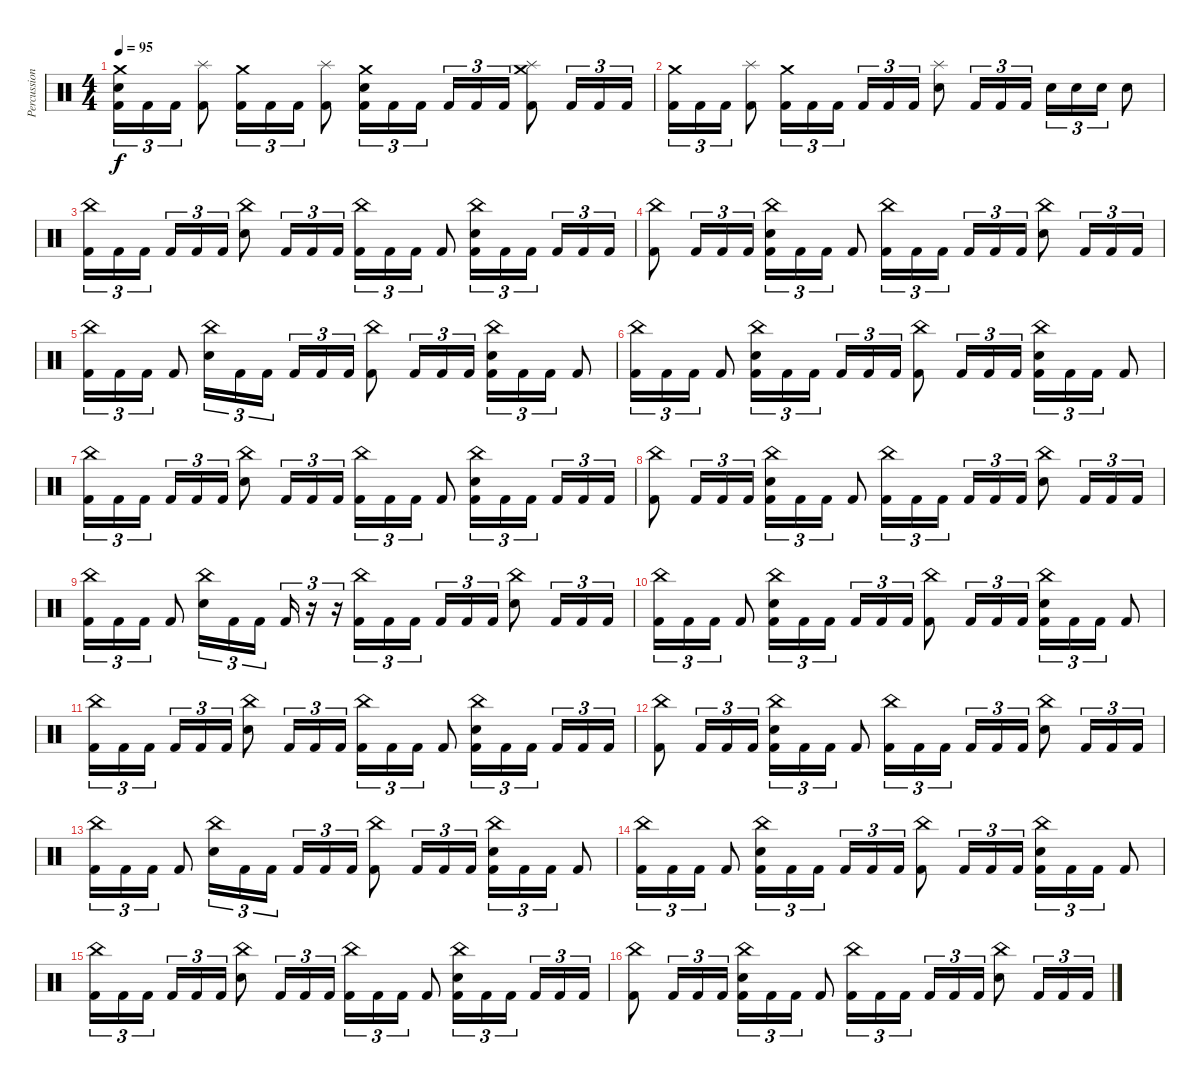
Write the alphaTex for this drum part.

\track ("Percussion" "Percussion") {instrument percussion}
\staff {score}
\articulation defaults
\ts (4 4)
\tempo 95
\clef neutral
\ks c
("Crash medium (hit)" "Electric Snare (hit)" "Kick (hit) 2").16{tu (3 2) dy f} "Kick (hit) 2".16{tu (3 2)} "Kick (hit) 2".16{tu (3 2)} ("Splash (hit)" "Kick (hit) 2").8 ("Crash medium (hit)" "Kick (hit) 2").16{tu (3 2)} "Kick (hit) 2".16{tu (3 2)} "Kick (hit) 2".16{tu (3 2)} ("Splash (hit)" "Kick (hit) 2").8 ("Crash medium (hit)" "Electric Snare (hit)" "Kick (hit) 2").16{tu (3 2)} "Kick (hit) 2".16{tu (3 2)} "Kick (hit) 2".16{tu (3 2) beam splitsecondary} "Kick (hit) 2".16{tu (3 2)} "Kick (hit) 2".16{tu (3 2)} "Kick (hit) 2".16{tu (3 2)} ("Crash medium (hit)" "Splash (hit)" "Kick (hit) 2").8 "Kick (hit) 2".16{tu (3 2)} "Kick (hit) 2".16{tu (3 2)} "Kick (hit) 2".16{tu (3 2)} |
("Crash medium (hit)" "Kick (hit) 2").16{tu (3 2)} "Kick (hit) 2".16{tu (3 2)} "Kick (hit) 2".16{tu (3 2)} ("Splash (hit)" "Kick (hit) 2").8 ("Crash medium (hit)" "Kick (hit) 2").16{tu (3 2)} "Kick (hit) 2".16{tu (3 2)} "Kick (hit) 2".16{tu (3 2) beam splitsecondary} "Kick (hit) 2".16{tu (3 2)} "Kick (hit) 2".16{tu (3 2)} "Kick (hit) 2".16{tu (3 2)} ("Splash (hit)" "Electric Snare (hit)").8 "Kick (hit) 2".16{tu (3 2)} "Kick (hit) 2".16{tu (3 2)} "Kick (hit) 2".16{tu (3 2)} "Electric Snare (hit)".16{tu (3 2)} "Electric Snare (hit)".16{tu (3 2)} "Electric Snare (hit)".16{tu (3 2)} "Electric Snare (hit)".8 |
("China (hit)" "Kick (hit) 2").16{tu (3 2)} "Kick (hit) 2".16{tu (3 2)} "Kick (hit) 2".16{tu (3 2) beam splitsecondary} "Kick (hit) 2".16{tu (3 2)} "Kick (hit) 2".16{tu (3 2)} "Kick (hit) 2".16{tu (3 2)} ("China (hit)" "Electric Snare (hit)").8 "Kick (hit) 2".16{tu (3 2)} "Kick (hit) 2".16{tu (3 2)} "Kick (hit) 2".16{tu (3 2)} ("China (hit)" "Kick (hit) 2").16{tu (3 2)} "Kick (hit) 2".16{tu (3 2)} "Kick (hit) 2".16{tu (3 2)} "Kick (hit) 2".8 ("China (hit)" "Electric Snare (hit)" "Kick (hit) 2").16{tu (3 2)} "Kick (hit) 2".16{tu (3 2)} "Kick (hit) 2".16{tu (3 2) beam splitsecondary} "Kick (hit) 2".16{tu (3 2)} "Kick (hit) 2".16{tu (3 2)} "Kick (hit) 2".16{tu (3 2)} |
("China (hit)" "Kick (hit) 2").8 "Kick (hit) 2".16{tu (3 2)} "Kick (hit) 2".16{tu (3 2)} "Kick (hit) 2".16{tu (3 2)} ("China (hit)" "Electric Snare (hit)" "Kick (hit) 2").16{tu (3 2)} "Kick (hit) 2".16{tu (3 2)} "Kick (hit) 2".16{tu (3 2)} "Kick (hit) 2".8 ("China (hit)" "Kick (hit) 2").16{tu (3 2)} "Kick (hit) 2".16{tu (3 2)} "Kick (hit) 2".16{tu (3 2) beam splitsecondary} "Kick (hit) 2".16{tu (3 2)} "Kick (hit) 2".16{tu (3 2)} "Kick (hit) 2".16{tu (3 2)} ("China (hit)" "Electric Snare (hit)").8 "Kick (hit) 2".16{tu (3 2)} "Kick (hit) 2".16{tu (3 2)} "Kick (hit) 2".16{tu (3 2)} |
("China (hit)" "Kick (hit) 2").16{tu (3 2)} "Kick (hit) 2".16{tu (3 2)} "Kick (hit) 2".16{tu (3 2)} "Kick (hit) 2".8 ("China (hit)" "Electric Snare (hit)").16{tu (3 2)} "Kick (hit) 2".16{tu (3 2)} "Kick (hit) 2".16{tu (3 2) beam splitsecondary} "Kick (hit) 2".16{tu (3 2)} "Kick (hit) 2".16{tu (3 2)} "Kick (hit) 2".16{tu (3 2)} ("China (hit)" "Kick (hit) 2").8 "Kick (hit) 2".16{tu (3 2)} "Kick (hit) 2".16{tu (3 2)} "Kick (hit) 2".16{tu (3 2)} ("China (hit)" "Electric Snare (hit)" "Kick (hit) 2").16{tu (3 2)} "Kick (hit) 2".16{tu (3 2)} "Kick (hit) 2".16{tu (3 2)} "Kick (hit) 2".8 |
("China (hit)" "Kick (hit) 2").16{tu (3 2)} "Kick (hit) 2".16{tu (3 2)} "Kick (hit) 2".16{tu (3 2)} "Kick (hit) 2".8 ("China (hit)" "Electric Snare (hit)" "Kick (hit) 2").16{tu (3 2)} "Kick (hit) 2".16{tu (3 2)} "Kick (hit) 2".16{tu (3 2) beam splitsecondary} "Kick (hit) 2".16{tu (3 2)} "Kick (hit) 2".16{tu (3 2)} "Kick (hit) 2".16{tu (3 2)} ("China (hit)" "Kick (hit) 2").8 "Kick (hit) 2".16{tu (3 2)} "Kick (hit) 2".16{tu (3 2)} "Kick (hit) 2".16{tu (3 2)} ("China (hit)" "Electric Snare (hit)" "Kick (hit) 2").16{tu (3 2)} "Kick (hit) 2".16{tu (3 2)} "Kick (hit) 2".16{tu (3 2)} "Kick (hit) 2".8 |
("China (hit)" "Kick (hit) 2").16{tu (3 2)} "Kick (hit) 2".16{tu (3 2)} "Kick (hit) 2".16{tu (3 2) beam splitsecondary} "Kick (hit) 2".16{tu (3 2)} "Kick (hit) 2".16{tu (3 2)} "Kick (hit) 2".16{tu (3 2)} ("China (hit)" "Electric Snare (hit)").8 "Kick (hit) 2".16{tu (3 2)} "Kick (hit) 2".16{tu (3 2)} "Kick (hit) 2".16{tu (3 2)} ("China (hit)" "Kick (hit) 2").16{tu (3 2)} "Kick (hit) 2".16{tu (3 2)} "Kick (hit) 2".16{tu (3 2)} "Kick (hit) 2".8 ("China (hit)" "Electric Snare (hit)" "Kick (hit) 2").16{tu (3 2)} "Kick (hit) 2".16{tu (3 2)} "Kick (hit) 2".16{tu (3 2) beam splitsecondary} "Kick (hit) 2".16{tu (3 2)} "Kick (hit) 2".16{tu (3 2)} "Kick (hit) 2".16{tu (3 2)} |
("China (hit)" "Kick (hit) 2").8 "Kick (hit) 2".16{tu (3 2)} "Kick (hit) 2".16{tu (3 2)} "Kick (hit) 2".16{tu (3 2)} ("China (hit)" "Electric Snare (hit)" "Kick (hit) 2").16{tu (3 2)} "Kick (hit) 2".16{tu (3 2)} "Kick (hit) 2".16{tu (3 2)} "Kick (hit) 2".8 ("China (hit)" "Kick (hit) 2").16{tu (3 2)} "Kick (hit) 2".16{tu (3 2)} "Kick (hit) 2".16{tu (3 2) beam splitsecondary} "Kick (hit) 2".16{tu (3 2)} "Kick (hit) 2".16{tu (3 2)} "Kick (hit) 2".16{tu (3 2)} ("China (hit)" "Electric Snare (hit)").8 "Kick (hit) 2".16{tu (3 2)} "Kick (hit) 2".16{tu (3 2)} "Kick (hit) 2".16{tu (3 2)} |
("China (hit)" "Kick (hit) 2").16{tu (3 2)} "Kick (hit) 2".16{tu (3 2)} "Kick (hit) 2".16{tu (3 2)} "Kick (hit) 2".8 ("China (hit)" "Electric Snare (hit)").16{tu (3 2)} "Kick (hit) 2".16{tu (3 2)} "Kick (hit) 2".16{tu (3 2) beam splitsecondary} "Kick (hit) 2".16{tu (3 2)} r.16{tu (3 2)} r.16{tu (3 2)} ("China (hit)" "Kick (hit) 2").16{tu (3 2)} "Kick (hit) 2".16{tu (3 2)} "Kick (hit) 2".16{tu (3 2) beam splitsecondary} "Kick (hit) 2".16{tu (3 2)} "Kick (hit) 2".16{tu (3 2)} "Kick (hit) 2".16{tu (3 2)} ("China (hit)" "Electric Snare (hit)").8 "Kick (hit) 2".16{tu (3 2)} "Kick (hit) 2".16{tu (3 2)} "Kick (hit) 2".16{tu (3 2)} |
("China (hit)" "Kick (hit) 2").16{tu (3 2)} "Kick (hit) 2".16{tu (3 2)} "Kick (hit) 2".16{tu (3 2)} "Kick (hit) 2".8 ("China (hit)" "Electric Snare (hit)" "Kick (hit) 2").16{tu (3 2)} "Kick (hit) 2".16{tu (3 2)} "Kick (hit) 2".16{tu (3 2) beam splitsecondary} "Kick (hit) 2".16{tu (3 2)} "Kick (hit) 2".16{tu (3 2)} "Kick (hit) 2".16{tu (3 2)} ("China (hit)" "Kick (hit) 2").8 "Kick (hit) 2".16{tu (3 2)} "Kick (hit) 2".16{tu (3 2)} "Kick (hit) 2".16{tu (3 2)} ("China (hit)" "Electric Snare (hit)" "Kick (hit) 2").16{tu (3 2)} "Kick (hit) 2".16{tu (3 2)} "Kick (hit) 2".16{tu (3 2)} "Kick (hit) 2".8 |
("China (hit)" "Kick (hit) 2").16{tu (3 2)} "Kick (hit) 2".16{tu (3 2)} "Kick (hit) 2".16{tu (3 2) beam splitsecondary} "Kick (hit) 2".16{tu (3 2)} "Kick (hit) 2".16{tu (3 2)} "Kick (hit) 2".16{tu (3 2)} ("China (hit)" "Electric Snare (hit)").8 "Kick (hit) 2".16{tu (3 2)} "Kick (hit) 2".16{tu (3 2)} "Kick (hit) 2".16{tu (3 2)} ("China (hit)" "Kick (hit) 2").16{tu (3 2)} "Kick (hit) 2".16{tu (3 2)} "Kick (hit) 2".16{tu (3 2)} "Kick (hit) 2".8 ("China (hit)" "Electric Snare (hit)" "Kick (hit) 2").16{tu (3 2)} "Kick (hit) 2".16{tu (3 2)} "Kick (hit) 2".16{tu (3 2) beam splitsecondary} "Kick (hit) 2".16{tu (3 2)} "Kick (hit) 2".16{tu (3 2)} "Kick (hit) 2".16{tu (3 2)} |
("China (hit)" "Kick (hit) 2").8 "Kick (hit) 2".16{tu (3 2)} "Kick (hit) 2".16{tu (3 2)} "Kick (hit) 2".16{tu (3 2)} ("China (hit)" "Electric Snare (hit)" "Kick (hit) 2").16{tu (3 2)} "Kick (hit) 2".16{tu (3 2)} "Kick (hit) 2".16{tu (3 2)} "Kick (hit) 2".8 ("China (hit)" "Kick (hit) 2").16{tu (3 2)} "Kick (hit) 2".16{tu (3 2)} "Kick (hit) 2".16{tu (3 2) beam splitsecondary} "Kick (hit) 2".16{tu (3 2)} "Kick (hit) 2".16{tu (3 2)} "Kick (hit) 2".16{tu (3 2)} ("China (hit)" "Electric Snare (hit)").8 "Kick (hit) 2".16{tu (3 2)} "Kick (hit) 2".16{tu (3 2)} "Kick (hit) 2".16{tu (3 2)} |
("China (hit)" "Kick (hit) 2").16{tu (3 2)} "Kick (hit) 2".16{tu (3 2)} "Kick (hit) 2".16{tu (3 2)} "Kick (hit) 2".8 ("China (hit)" "Electric Snare (hit)").16{tu (3 2)} "Kick (hit) 2".16{tu (3 2)} "Kick (hit) 2".16{tu (3 2) beam splitsecondary} "Kick (hit) 2".16{tu (3 2)} "Kick (hit) 2".16{tu (3 2)} "Kick (hit) 2".16{tu (3 2)} ("China (hit)" "Kick (hit) 2").8 "Kick (hit) 2".16{tu (3 2)} "Kick (hit) 2".16{tu (3 2)} "Kick (hit) 2".16{tu (3 2)} ("China (hit)" "Electric Snare (hit)" "Kick (hit) 2").16{tu (3 2)} "Kick (hit) 2".16{tu (3 2)} "Kick (hit) 2".16{tu (3 2)} "Kick (hit) 2".8 |
("China (hit)" "Kick (hit) 2").16{tu (3 2)} "Kick (hit) 2".16{tu (3 2)} "Kick (hit) 2".16{tu (3 2)} "Kick (hit) 2".8 ("China (hit)" "Electric Snare (hit)" "Kick (hit) 2").16{tu (3 2)} "Kick (hit) 2".16{tu (3 2)} "Kick (hit) 2".16{tu (3 2) beam splitsecondary} "Kick (hit) 2".16{tu (3 2)} "Kick (hit) 2".16{tu (3 2)} "Kick (hit) 2".16{tu (3 2)} ("China (hit)" "Kick (hit) 2").8 "Kick (hit) 2".16{tu (3 2)} "Kick (hit) 2".16{tu (3 2)} "Kick (hit) 2".16{tu (3 2)} ("China (hit)" "Electric Snare (hit)" "Kick (hit) 2").16{tu (3 2)} "Kick (hit) 2".16{tu (3 2)} "Kick (hit) 2".16{tu (3 2)} "Kick (hit) 2".8 |
("China (hit)" "Kick (hit) 2").16{tu (3 2)} "Kick (hit) 2".16{tu (3 2)} "Kick (hit) 2".16{tu (3 2) beam splitsecondary} "Kick (hit) 2".16{tu (3 2)} "Kick (hit) 2".16{tu (3 2)} "Kick (hit) 2".16{tu (3 2)} ("China (hit)" "Electric Snare (hit)").8 "Kick (hit) 2".16{tu (3 2)} "Kick (hit) 2".16{tu (3 2)} "Kick (hit) 2".16{tu (3 2)} ("China (hit)" "Kick (hit) 2").16{tu (3 2)} "Kick (hit) 2".16{tu (3 2)} "Kick (hit) 2".16{tu (3 2)} "Kick (hit) 2".8 ("China (hit)" "Electric Snare (hit)" "Kick (hit) 2").16{tu (3 2)} "Kick (hit) 2".16{tu (3 2)} "Kick (hit) 2".16{tu (3 2) beam splitsecondary} "Kick (hit) 2".16{tu (3 2)} "Kick (hit) 2".16{tu (3 2)} "Kick (hit) 2".16{tu (3 2)} |
("China (hit)" "Kick (hit) 2").8 "Kick (hit) 2".16{tu (3 2)} "Kick (hit) 2".16{tu (3 2)} "Kick (hit) 2".16{tu (3 2)} ("China (hit)" "Electric Snare (hit)" "Kick (hit) 2").16{tu (3 2)} "Kick (hit) 2".16{tu (3 2)} "Kick (hit) 2".16{tu (3 2)} "Kick (hit) 2".8 ("China (hit)" "Kick (hit) 2").16{tu (3 2)} "Kick (hit) 2".16{tu (3 2)} "Kick (hit) 2".16{tu (3 2) beam splitsecondary} "Kick (hit) 2".16{tu (3 2)} "Kick (hit) 2".16{tu (3 2)} "Kick (hit) 2".16{tu (3 2)} ("China (hit)" "Electric Snare (hit)").8 "Kick (hit) 2".16{tu (3 2)} "Kick (hit) 2".16{tu (3 2)} "Kick (hit) 2".16{tu (3 2)}
